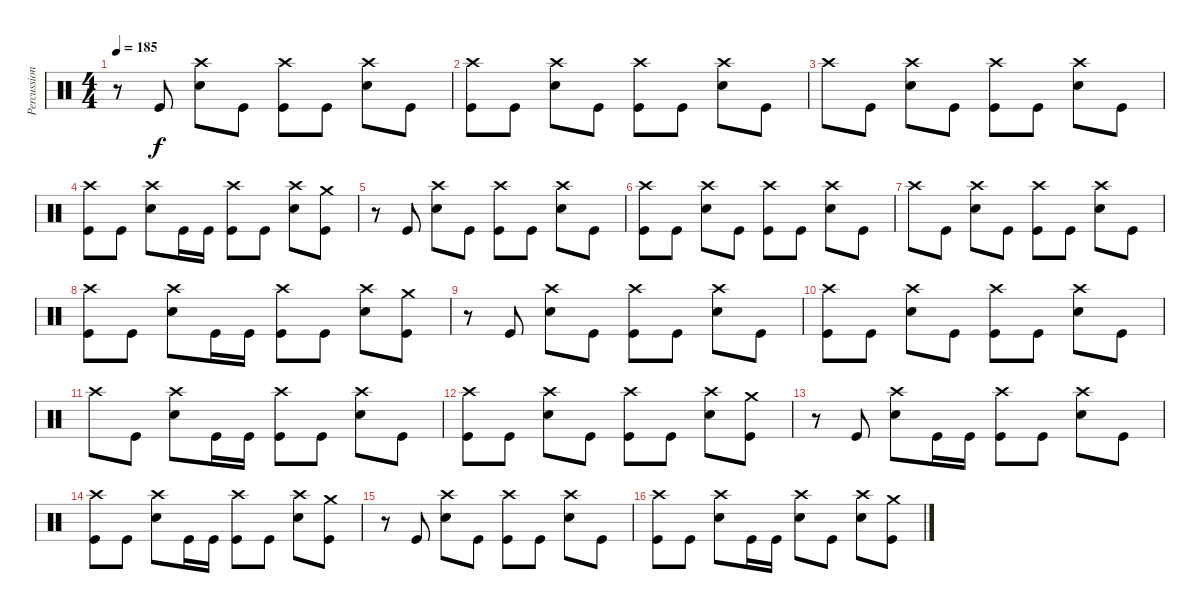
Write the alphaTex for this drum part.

\track ("Percussion" "Percussion") {instrument percussion}
\staff {score}
\articulation defaults
\ts (4 4)
\tempo 185
\clef neutral
\ks c
r.8{dy f} "Kick (hit)".8 ("Crash high (hit)" "Electric Snare (hit)").8 "Kick (hit)".8 ("Crash high (hit)" "Kick (hit)").8 "Kick (hit)".8 ("Crash high (hit)" "Electric Snare (hit)").8 "Kick (hit)".8 |
("Crash high (hit)" "Kick (hit)").8 "Kick (hit)".8 ("Crash high (hit)" "Electric Snare (hit)").8 "Kick (hit)".8 ("Crash high (hit)" "Kick (hit)").8 "Kick (hit)".8 ("Crash high (hit)" "Electric Snare (hit)").8 "Kick (hit)".8 |
"Crash high (hit)".8 "Kick (hit)".8 ("Crash high (hit)" "Electric Snare (hit)").8 "Kick (hit)".8 ("Crash high (hit)" "Kick (hit)").8 "Kick (hit)".8 ("Crash high (hit)" "Electric Snare (hit)").8 "Kick (hit)".8 |
("Crash high (hit)" "Kick (hit)").8 "Kick (hit)".8 ("Crash high (hit)" "Electric Snare (hit)").8 "Kick (hit)".16 "Kick (hit)".16 ("Crash high (hit)" "Kick (hit)").8 "Kick (hit)".8 ("Crash high (hit)" "Electric Snare (hit)").8 ("Crash medium (hit)" "Kick (hit)").8 |
r.8 "Kick (hit)".8 ("Crash high (hit)" "Electric Snare (hit)").8 "Kick (hit)".8 ("Crash high (hit)" "Kick (hit)").8 "Kick (hit)".8 ("Crash high (hit)" "Electric Snare (hit)").8 "Kick (hit)".8 |
("Crash high (hit)" "Kick (hit)").8 "Kick (hit)".8 ("Crash high (hit)" "Electric Snare (hit)").8 "Kick (hit)".8 ("Crash high (hit)" "Kick (hit)").8 "Kick (hit)".8 ("Crash high (hit)" "Electric Snare (hit)").8 "Kick (hit)".8 |
"Crash high (hit)".8 "Kick (hit)".8 ("Crash high (hit)" "Electric Snare (hit)").8 "Kick (hit)".8 ("Crash high (hit)" "Kick (hit)").8 "Kick (hit)".8 ("Crash high (hit)" "Electric Snare (hit)").8 "Kick (hit)".8 |
("Crash high (hit)" "Kick (hit)").8 "Kick (hit)".8 ("Crash high (hit)" "Electric Snare (hit)").8 "Kick (hit)".16 "Kick (hit)".16 ("Crash high (hit)" "Kick (hit)").8 "Kick (hit)".8 ("Crash high (hit)" "Electric Snare (hit)").8 ("Crash medium (hit)" "Kick (hit)").8 |
r.8 "Kick (hit)".8 ("Crash high (hit)" "Electric Snare (hit)").8 "Kick (hit)".8 ("Crash high (hit)" "Kick (hit)").8 "Kick (hit)".8 ("Crash high (hit)" "Electric Snare (hit)").8 "Kick (hit)".8 |
("Crash high (hit)" "Kick (hit)").8 "Kick (hit)".8 ("Crash high (hit)" "Electric Snare (hit)").8 "Kick (hit)".8 ("Crash high (hit)" "Kick (hit)").8 "Kick (hit)".8 ("Crash high (hit)" "Electric Snare (hit)").8 "Kick (hit)".8 |
"Crash high (hit)".8 "Kick (hit)".8 ("Crash high (hit)" "Electric Snare (hit)").8 "Kick (hit)".16 "Kick (hit)".16 ("Crash high (hit)" "Kick (hit)").8 "Kick (hit)".8 ("Crash high (hit)" "Electric Snare (hit)").8 "Kick (hit)".8 |
("Crash high (hit)" "Kick (hit)").8 "Kick (hit)".8 ("Crash high (hit)" "Electric Snare (hit)").8 "Kick (hit)".8 ("Crash high (hit)" "Kick (hit)").8 "Kick (hit)".8 ("Crash high (hit)" "Electric Snare (hit)").8 ("Crash medium (hit)" "Kick (hit)").8 |
r.8 "Kick (hit)".8 ("Crash high (hit)" "Electric Snare (hit)").8 "Kick (hit)".16 "Kick (hit)".16 ("Crash high (hit)" "Kick (hit)").8 "Kick (hit)".8 ("Crash high (hit)" "Electric Snare (hit)").8 "Kick (hit)".8 |
("Crash high (hit)" "Kick (hit)").8 "Kick (hit)".8 ("Crash high (hit)" "Electric Snare (hit)").8 "Kick (hit)".16 "Kick (hit)".16 ("Crash high (hit)" "Kick (hit)").8 "Kick (hit)".8 ("Crash high (hit)" "Electric Snare (hit)").8 ("Crash medium (hit)" "Kick (hit)").8 |
r.8 "Kick (hit)".8 ("Crash high (hit)" "Electric Snare (hit)").8 "Kick (hit)".8 ("Crash high (hit)" "Kick (hit)").8 "Kick (hit)".8 ("Crash high (hit)" "Electric Snare (hit)").8 "Kick (hit)".8 |
("Crash high (hit)" "Kick (hit)").8 "Kick (hit)".8 ("Crash high (hit)" "Electric Snare (hit)").8 "Kick (hit)".16 "Kick (hit)".16 ("Crash high (hit)" "Electric Snare (hit)").8 "Kick (hit)".8 ("Crash high (hit)" "Electric Snare (hit)").8 ("Crash medium (hit)" "Kick (hit)").8
